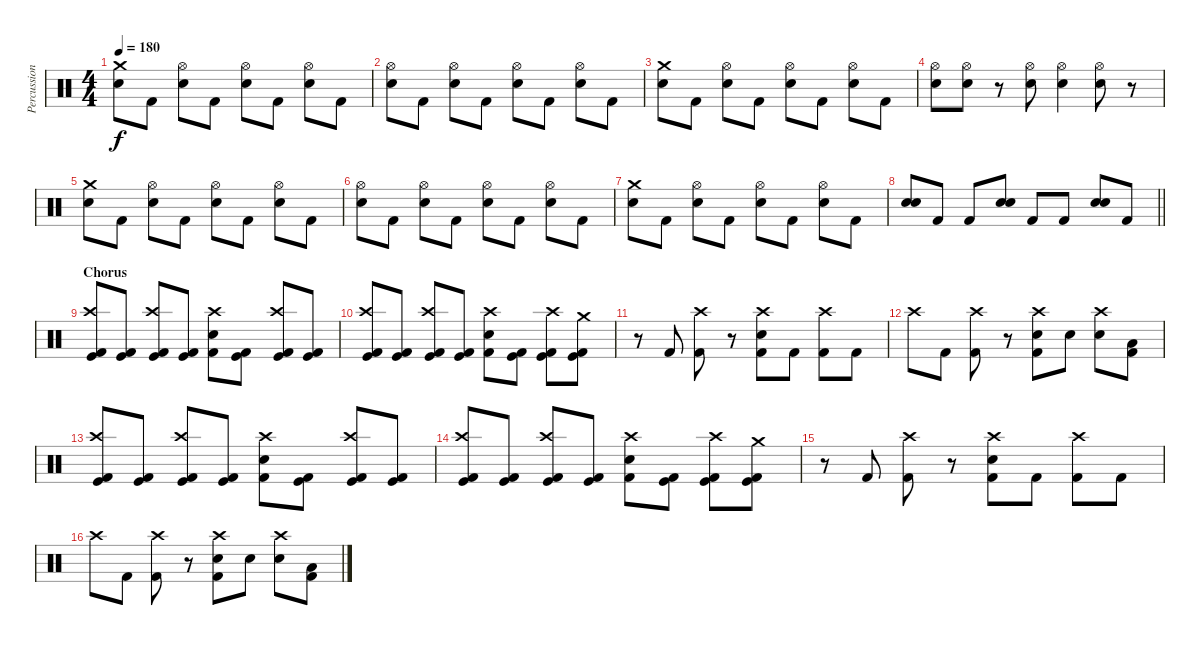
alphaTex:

\track ("Percussion" "Percussion") {instrument percussion}
\staff {score}
\articulation defaults
\ts (4 4)
\tempo 180
\clef neutral
\ks c
("Crash medium (hit)" "Electric Snare (hit)").8{dy f} "Kick (hit) 2".8 ("Hi-Hat (open)" "Electric Snare (hit)").8 "Kick (hit) 2".8 ("Hi-Hat (open)" "Electric Snare (hit)").8 "Kick (hit) 2".8 ("Hi-Hat (open)" "Electric Snare (hit)").8 "Kick (hit) 2".8 |
("Hi-Hat (open)" "Electric Snare (hit)").8 "Kick (hit) 2".8 ("Hi-Hat (open)" "Electric Snare (hit)").8 "Kick (hit) 2".8 ("Hi-Hat (open)" "Electric Snare (hit)").8 "Kick (hit) 2".8 ("Hi-Hat (open)" "Electric Snare (hit)").8 "Kick (hit) 2".8 |
("Crash medium (hit)" "Electric Snare (hit)").8 "Kick (hit) 2".8 ("Hi-Hat (open)" "Electric Snare (hit)").8 "Kick (hit) 2".8 ("Hi-Hat (open)" "Electric Snare (hit)").8 "Kick (hit) 2".8 ("Hi-Hat (open)" "Electric Snare (hit)").8 "Kick (hit) 2".8 |
("Hi-Hat (open)" "Electric Snare (hit)").8 ("Hi-Hat (open)" "Electric Snare (hit)").8 r.8 ("Hi-Hat (open)" "Electric Snare (hit)").8 ("Hi-Hat (open)" "Electric Snare (hit)").4 ("Hi-Hat (open)" "Electric Snare (hit)").8 r.8 |
("Crash medium (hit)" "Electric Snare (hit)").8 "Kick (hit) 2".8 ("Hi-Hat (open)" "Electric Snare (hit)").8 "Kick (hit) 2".8 ("Hi-Hat (open)" "Electric Snare (hit)").8 "Kick (hit) 2".8 ("Hi-Hat (open)" "Electric Snare (hit)").8 "Kick (hit) 2".8 |
("Hi-Hat (open)" "Electric Snare (hit)").8 "Kick (hit) 2".8 ("Hi-Hat (open)" "Electric Snare (hit)").8 "Kick (hit) 2".8 ("Hi-Hat (open)" "Electric Snare (hit)").8 "Kick (hit) 2".8 ("Hi-Hat (open)" "Electric Snare (hit)").8 "Kick (hit) 2".8 |
("Crash medium (hit)" "Electric Snare (hit)").8 "Kick (hit) 2".8 ("Hi-Hat (open)" "Electric Snare (hit)").8 "Kick (hit) 2".8 ("Hi-Hat (open)" "Electric Snare (hit)").8 "Kick (hit) 2".8 ("Hi-Hat (open)" "Electric Snare (hit)").8 "Kick (hit) 2".8 |
\barLineRight lightlight
("Snare (hit) 2" "Electric Snare (hit)").8 "Kick (hit) 2".8 "Kick (hit) 2".8 ("Snare (hit) 2" "Electric Snare (hit)").8 "Kick (hit) 2".8 "Kick (hit) 2".8 ("Snare (hit) 2" "Electric Snare (hit)").8 "Kick (hit) 2".8 |
\section ("" "Chorus")
("Crash high (hit)" "Kick (hit)" "Kick (hit) 2").8{volume 16} ("Kick (hit)" "Kick (hit) 2").8 ("Crash high (hit)" "Kick (hit)" "Kick (hit) 2").8 ("Kick (hit)" "Kick (hit) 2").8 ("Crash high (hit)" "Electric Snare (hit)" "Kick (hit) 2").8 ("Kick (hit)" "Kick (hit) 2").8 ("Crash high (hit)" "Kick (hit)" "Kick (hit) 2").8 ("Kick (hit)" "Kick (hit) 2").8 |
("Crash high (hit)" "Kick (hit)" "Kick (hit) 2").8{volume 16} ("Kick (hit)" "Kick (hit) 2").8 ("Crash high (hit)" "Kick (hit)" "Kick (hit) 2").8 ("Kick (hit)" "Kick (hit) 2").8 ("Crash high (hit)" "Electric Snare (hit)" "Kick (hit) 2").8 ("Kick (hit)" "Kick (hit) 2").8 ("Crash high (hit)" "Kick (hit)" "Kick (hit) 2").8 ("Crash medium (hit)" "Kick (hit)" "Kick (hit) 2").8 |
r.8 "Kick (hit) 2".8 ("Crash high (hit)" "Kick (hit) 2").8 r.8 ("Crash high (hit)" "Electric Snare (hit)" "Kick (hit) 2").8 "Kick (hit) 2".8 ("Crash high (hit)" "Kick (hit) 2").8 "Kick (hit) 2".8 |
"Crash high (hit)".8 "Kick (hit) 2".8 ("Crash high (hit)" "Kick (hit) 2").8 r.8 ("Crash high (hit)" "Electric Snare (hit)" "Kick (hit) 2").8 "Electric Snare (hit)".8 ("Crash high (hit)" "Electric Snare (hit)").8 ("Low Tom (hit)" "Kick (hit) 2").8 |
("Crash high (hit)" "Kick (hit)" "Kick (hit) 2").8{volume 16} ("Kick (hit)" "Kick (hit) 2").8 ("Crash high (hit)" "Kick (hit)" "Kick (hit) 2").8 ("Kick (hit)" "Kick (hit) 2").8 ("Crash high (hit)" "Electric Snare (hit)" "Kick (hit) 2").8 ("Kick (hit)" "Kick (hit) 2").8 ("Crash high (hit)" "Kick (hit)" "Kick (hit) 2").8 ("Kick (hit)" "Kick (hit) 2").8 |
("Crash high (hit)" "Kick (hit)" "Kick (hit) 2").8{volume 16} ("Kick (hit)" "Kick (hit) 2").8 ("Crash high (hit)" "Kick (hit)" "Kick (hit) 2").8 ("Kick (hit)" "Kick (hit) 2").8 ("Crash high (hit)" "Electric Snare (hit)" "Kick (hit) 2").8 ("Kick (hit)" "Kick (hit) 2").8 ("Crash high (hit)" "Kick (hit)" "Kick (hit) 2").8 ("Crash medium (hit)" "Kick (hit)" "Kick (hit) 2").8 |
r.8 "Kick (hit) 2".8 ("Crash high (hit)" "Kick (hit) 2").8 r.8 ("Crash high (hit)" "Electric Snare (hit)" "Kick (hit) 2").8 "Kick (hit) 2".8 ("Crash high (hit)" "Kick (hit) 2").8 "Kick (hit) 2".8 |
"Crash high (hit)".8 "Kick (hit) 2".8 ("Crash high (hit)" "Kick (hit) 2").8 r.8 ("Crash high (hit)" "Electric Snare (hit)" "Kick (hit) 2").8 "Electric Snare (hit)".8 ("Crash high (hit)" "Electric Snare (hit)").8 ("Low Tom (hit)" "Kick (hit) 2").8
